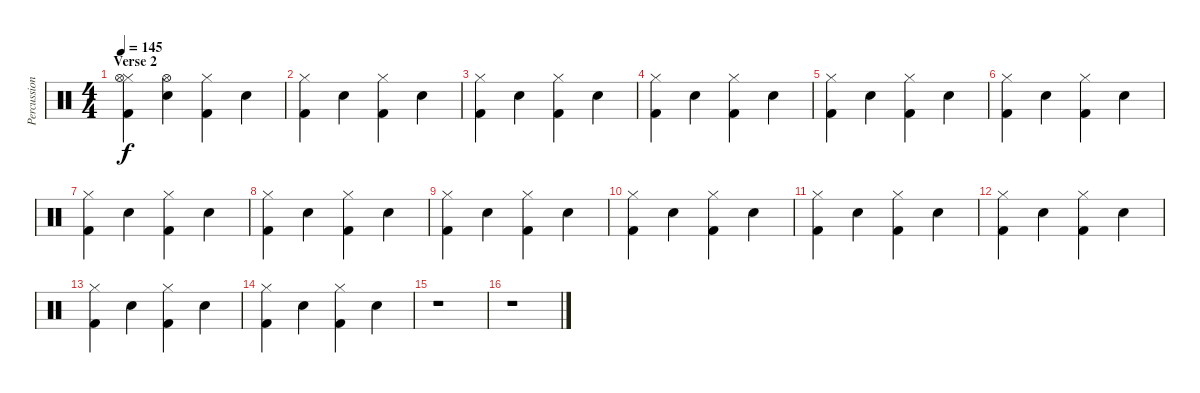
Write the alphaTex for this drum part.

\track ("Percussions" "Percussion") {instrument percussion}
\staff {score}
\articulation defaults
\ts (4 4)
\section ("" "Verse 2")
\tempo 145
\clef neutral
\ks c
("Kick (hit) 2" "Hi-Hat (closed)" "Hi-Hat (open)").4{dy f} ("Snare (hit) 2" "Hi-Hat (open)").4 ("Kick (hit) 2" "Hi-Hat (closed)").4 "Snare (hit) 2".4 |
("Kick (hit) 2" "Hi-Hat (closed)").4 "Snare (hit) 2".4 ("Kick (hit) 2" "Hi-Hat (closed)").4 "Snare (hit) 2".4 |
("Kick (hit) 2" "Hi-Hat (closed)").4 "Snare (hit) 2".4 ("Kick (hit) 2" "Hi-Hat (closed)").4 "Snare (hit) 2".4 |
("Kick (hit) 2" "Hi-Hat (closed)").4 "Snare (hit) 2".4 ("Kick (hit) 2" "Hi-Hat (closed)").4 "Snare (hit) 2".4 |
("Kick (hit) 2" "Hi-Hat (closed)").4 "Snare (hit) 2".4 ("Kick (hit) 2" "Hi-Hat (closed)").4 "Snare (hit) 2".4 |
("Kick (hit) 2" "Hi-Hat (closed)").4 "Snare (hit) 2".4 ("Kick (hit) 2" "Hi-Hat (closed)").4 "Snare (hit) 2".4 |
("Kick (hit) 2" "Hi-Hat (closed)").4 "Snare (hit) 2".4 ("Kick (hit) 2" "Hi-Hat (closed)").4 "Snare (hit) 2".4 |
("Kick (hit) 2" "Hi-Hat (closed)").4 "Snare (hit) 2".4 ("Kick (hit) 2" "Hi-Hat (closed)").4 "Snare (hit) 2".4 |
("Kick (hit) 2" "Hi-Hat (closed)").4 "Snare (hit) 2".4 ("Kick (hit) 2" "Hi-Hat (closed)").4 "Snare (hit) 2".4 |
("Kick (hit) 2" "Hi-Hat (closed)").4 "Snare (hit) 2".4 ("Kick (hit) 2" "Hi-Hat (closed)").4 "Snare (hit) 2".4 |
("Kick (hit) 2" "Hi-Hat (closed)").4 "Snare (hit) 2".4 ("Kick (hit) 2" "Hi-Hat (closed)").4 "Snare (hit) 2".4 |
("Kick (hit) 2" "Hi-Hat (closed)").4 "Snare (hit) 2".4 ("Kick (hit) 2" "Hi-Hat (closed)").4 "Snare (hit) 2".4 |
("Kick (hit) 2" "Hi-Hat (closed)").4 "Snare (hit) 2".4 ("Kick (hit) 2" "Hi-Hat (closed)").4 "Snare (hit) 2".4 |
("Kick (hit) 2" "Hi-Hat (closed)").4 "Snare (hit) 2".4 ("Kick (hit) 2" "Hi-Hat (closed)").4 "Snare (hit) 2".4 |
r.1 |
r.1
